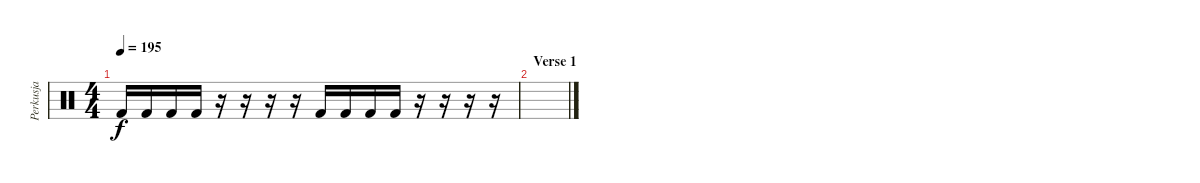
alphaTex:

\track ("Perkusja" "Perkusja") {instrument percussion}
\staff {score}
\articulation defaults
\ts (4 4)
\tempo 195
\clef neutral
\ks c "Kick (hit) 2".16{dy f} "Kick (hit) 2".16 "Kick (hit) 2".16 "Kick (hit) 2".16
r.16 r.16 r.16 r.16 "Kick (hit) 2".16 "Kick (hit) 2".16 "Kick (hit) 2".16 "Kick (hit) 2".16 r.16 r.16 r.16 r.16 |
\section ("" "Verse 1")
